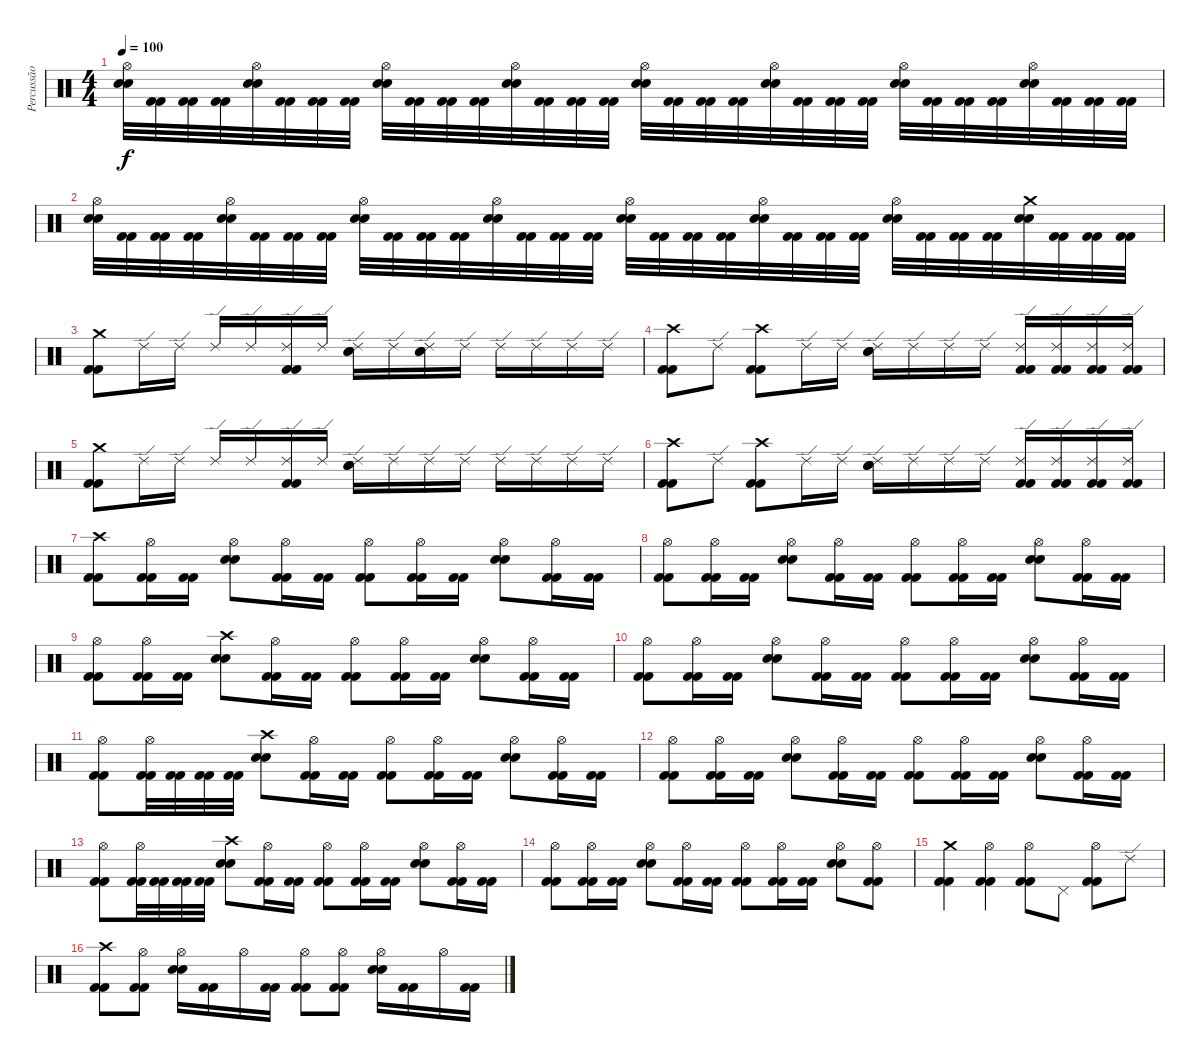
\track ("Percussão" "Percussão") {instrument percussion}
\staff {score}
\articulation defaults
\ts (4 4)
\tempo 100
\clef neutral
\ks c
("Hi-Hat (open)" "Electric Snare (hit)" "Electric Snare (hit)").32{dy f} ("Kick (hit) 2" "Kick (hit) 2").32 ("Kick (hit) 2" "Kick (hit) 2").32 ("Kick (hit) 2" "Kick (hit) 2").32 ("Hi-Hat (open)" "Electric Snare (hit)" "Electric Snare (hit)").32 ("Kick (hit) 2" "Kick (hit) 2").32 ("Kick (hit) 2" "Kick (hit) 2").32 ("Kick (hit) 2" "Kick (hit) 2").32 ("Hi-Hat (open)" "Electric Snare (hit)" "Electric Snare (hit)").32 ("Kick (hit) 2" "Kick (hit) 2").32 ("Kick (hit) 2" "Kick (hit) 2").32 ("Kick (hit) 2" "Kick (hit) 2").32 ("Hi-Hat (open)" "Electric Snare (hit)" "Electric Snare (hit)").32 ("Kick (hit) 2" "Kick (hit) 2").32 ("Kick (hit) 2" "Kick (hit) 2").32 ("Kick (hit) 2" "Kick (hit) 2").32 ("Hi-Hat (open)" "Electric Snare (hit)" "Electric Snare (hit)").32 ("Kick (hit) 2" "Kick (hit) 2").32 ("Kick (hit) 2" "Kick (hit) 2").32 ("Kick (hit) 2" "Kick (hit) 2").32 ("Hi-Hat (open)" "Electric Snare (hit)" "Electric Snare (hit)").32 ("Kick (hit) 2" "Kick (hit) 2").32 ("Kick (hit) 2" "Kick (hit) 2").32 ("Kick (hit) 2" "Kick (hit) 2").32 ("Hi-Hat (open)" "Electric Snare (hit)" "Electric Snare (hit)").32 ("Kick (hit) 2" "Kick (hit) 2").32 ("Kick (hit) 2" "Kick (hit) 2").32 ("Kick (hit) 2" "Kick (hit) 2").32 ("Hi-Hat (open)" "Electric Snare (hit)" "Electric Snare (hit)").32 ("Kick (hit) 2" "Kick (hit) 2").32 ("Kick (hit) 2" "Kick (hit) 2").32 ("Kick (hit) 2" "Kick (hit) 2").32 |
("Hi-Hat (open)" "Electric Snare (hit)" "Electric Snare (hit)").32 ("Kick (hit) 2" "Kick (hit) 2").32 ("Kick (hit) 2" "Kick (hit) 2").32 ("Kick (hit) 2" "Kick (hit) 2").32 ("Hi-Hat (open)" "Electric Snare (hit)" "Electric Snare (hit)").32 ("Kick (hit) 2" "Kick (hit) 2").32 ("Kick (hit) 2" "Kick (hit) 2").32 ("Kick (hit) 2" "Kick (hit) 2").32 ("Hi-Hat (open)" "Electric Snare (hit)" "Electric Snare (hit)").32 ("Kick (hit) 2" "Kick (hit) 2").32 ("Kick (hit) 2" "Kick (hit) 2").32 ("Kick (hit) 2" "Kick (hit) 2").32 ("Hi-Hat (open)" "Electric Snare (hit)" "Electric Snare (hit)").32 ("Kick (hit) 2" "Kick (hit) 2").32 ("Kick (hit) 2" "Kick (hit) 2").32 ("Kick (hit) 2" "Kick (hit) 2").32 ("Hi-Hat (open)" "Electric Snare (hit)" "Electric Snare (hit)").32 ("Kick (hit) 2" "Kick (hit) 2").32 ("Kick (hit) 2" "Kick (hit) 2").32 ("Kick (hit) 2" "Kick (hit) 2").32 ("Hi-Hat (open)" "Electric Snare (hit)" "Electric Snare (hit)").32 ("Kick (hit) 2" "Kick (hit) 2").32 ("Kick (hit) 2" "Kick (hit) 2").32 ("Kick (hit) 2" "Kick (hit) 2").32 ("Hi-Hat (open)" "Electric Snare (hit)" "Electric Snare (hit)").32 ("Kick (hit) 2" "Kick (hit) 2").32 ("Kick (hit) 2" "Kick (hit) 2").32 ("Kick (hit) 2" "Kick (hit) 2").32 ("Crash medium (hit)" "Electric Snare (hit)" "Electric Snare (hit)").32 ("Kick (hit) 2" "Kick (hit) 2").32 ("Kick (hit) 2" "Kick (hit) 2").32 ("Kick (hit) 2" "Kick (hit) 2").32 |
("Crash medium (hit)" "Kick (hit) 2" "Kick (hit) 2").8 "Ride (edge) 2".16 "Ride (edge) 2".16 "Ride (edge) 2".16 "Ride (edge) 2".16 ("Ride (edge) 2" "Kick (hit) 2" "Kick (hit) 2").16 "Ride (edge) 2".16 ("Ride (edge) 2" "Electric Snare (hit)" "Electric Snare (hit)").16 "Ride (edge) 2".16 ("Ride (edge) 2" "Electric Snare (hit)" "Electric Snare (hit)").16 "Ride (edge) 2".16 "Ride (edge) 2".16 "Ride (edge) 2".16 "Ride (edge) 2".16 "Ride (edge) 2".16 |
("Crash high (hit)" "Kick (hit) 2" "Kick (hit) 2").8 "Ride (edge) 2".8 ("Crash high (hit)" "Kick (hit) 2" "Kick (hit) 2").8 "Ride (edge) 2".16 "Ride (edge) 2".16 ("Ride (edge) 2" "Electric Snare (hit)" "Electric Snare (hit)").16 "Ride (edge) 2".16 "Ride (edge) 2".16 "Ride (edge) 2".16 ("Ride (edge) 2" "Kick (hit) 2" "Kick (hit) 2").16 ("Ride (edge) 2" "Kick (hit) 2" "Kick (hit) 2").16 ("Ride (edge) 2" "Kick (hit) 2" "Kick (hit) 2").16 ("Ride (edge) 2" "Kick (hit) 2" "Kick (hit) 2").16 |
("Crash medium (hit)" "Kick (hit) 2" "Kick (hit) 2").8 "Ride (edge) 2".16 "Ride (edge) 2".16 "Ride (edge) 2".16 "Ride (edge) 2".16 ("Ride (edge) 2" "Kick (hit) 2" "Kick (hit) 2").16 "Ride (edge) 2".16 ("Ride (edge) 2" "Electric Snare (hit)" "Electric Snare (hit)").16 "Ride (edge) 2".16 "Ride (edge) 2".16 "Ride (edge) 2".16 "Ride (edge) 2".16 "Ride (edge) 2".16 "Ride (edge) 2".16 "Ride (edge) 2".16 |
("Crash high (hit)" "Kick (hit) 2" "Kick (hit) 2").8 "Ride (edge) 2".8 ("Crash high (hit)" "Kick (hit) 2" "Kick (hit) 2").8 "Ride (edge) 2".16 "Ride (edge) 2".16 ("Ride (edge) 2" "Electric Snare (hit)" "Electric Snare (hit)").16 "Ride (edge) 2".16 "Ride (edge) 2".16 "Ride (edge) 2".16 ("Ride (edge) 2" "Kick (hit) 2" "Kick (hit) 2").16 ("Ride (edge) 2" "Kick (hit) 2" "Kick (hit) 2").16 ("Ride (edge) 2" "Kick (hit) 2" "Kick (hit) 2").16 ("Ride (edge) 2" "Kick (hit) 2" "Kick (hit) 2").16 |
("Crash high (hit)" "Kick (hit) 2" "Kick (hit) 2").8 ("Hi-Hat (open)" "Kick (hit) 2" "Kick (hit) 2").16 ("Kick (hit) 2" "Kick (hit) 2").16 ("Hi-Hat (open)" "Electric Snare (hit)" "Electric Snare (hit)").8 ("Hi-Hat (open)" "Kick (hit) 2" "Kick (hit) 2").16 ("Kick (hit) 2" "Kick (hit) 2").16 ("Hi-Hat (open)" "Kick (hit) 2" "Kick (hit) 2").8 ("Hi-Hat (open)" "Kick (hit) 2" "Kick (hit) 2").16 ("Kick (hit) 2" "Kick (hit) 2").16 ("Hi-Hat (open)" "Electric Snare (hit)" "Electric Snare (hit)").8 ("Hi-Hat (open)" "Kick (hit) 2" "Kick (hit) 2").16 ("Kick (hit) 2" "Kick (hit) 2").16 |
("Hi-Hat (open)" "Kick (hit) 2" "Kick (hit) 2").8 ("Hi-Hat (open)" "Kick (hit) 2" "Kick (hit) 2").16 ("Kick (hit) 2" "Kick (hit) 2").16 ("Hi-Hat (open)" "Electric Snare (hit)" "Electric Snare (hit)").8 ("Hi-Hat (open)" "Kick (hit) 2" "Kick (hit) 2").16 ("Kick (hit) 2" "Kick (hit) 2").16 ("Hi-Hat (open)" "Kick (hit) 2" "Kick (hit) 2").8 ("Hi-Hat (open)" "Kick (hit) 2" "Kick (hit) 2").16 ("Kick (hit) 2" "Kick (hit) 2").16 ("Hi-Hat (open)" "Electric Snare (hit)" "Electric Snare (hit)").8 ("Hi-Hat (open)" "Kick (hit) 2" "Kick (hit) 2").16 ("Kick (hit) 2" "Kick (hit) 2").16 |
("Hi-Hat (open)" "Kick (hit) 2" "Kick (hit) 2").8 ("Hi-Hat (open)" "Kick (hit) 2" "Kick (hit) 2").16 ("Kick (hit) 2" "Kick (hit) 2").16 ("Crash high (hit)" "Electric Snare (hit)" "Electric Snare (hit)").8 ("Hi-Hat (open)" "Kick (hit) 2" "Kick (hit) 2").16 ("Kick (hit) 2" "Kick (hit) 2").16 ("Hi-Hat (open)" "Kick (hit) 2" "Kick (hit) 2").8 ("Hi-Hat (open)" "Kick (hit) 2" "Kick (hit) 2").16 ("Kick (hit) 2" "Kick (hit) 2").16 ("Hi-Hat (open)" "Electric Snare (hit)" "Electric Snare (hit)").8 ("Hi-Hat (open)" "Kick (hit) 2" "Kick (hit) 2").16 ("Kick (hit) 2" "Kick (hit) 2").16 |
("Hi-Hat (open)" "Kick (hit) 2" "Kick (hit) 2").8 ("Hi-Hat (open)" "Kick (hit) 2" "Kick (hit) 2").16 ("Kick (hit) 2" "Kick (hit) 2").16 ("Hi-Hat (open)" "Electric Snare (hit)" "Electric Snare (hit)").8 ("Hi-Hat (open)" "Kick (hit) 2" "Kick (hit) 2").16 ("Kick (hit) 2" "Kick (hit) 2").16 ("Hi-Hat (open)" "Kick (hit) 2" "Kick (hit) 2").8 ("Hi-Hat (open)" "Kick (hit) 2" "Kick (hit) 2").16 ("Kick (hit) 2" "Kick (hit) 2").16 ("Hi-Hat (open)" "Electric Snare (hit)" "Electric Snare (hit)").8 ("Hi-Hat (open)" "Kick (hit) 2" "Kick (hit) 2").16 ("Kick (hit) 2" "Kick (hit) 2").16 |
("Hi-Hat (open)" "Kick (hit) 2" "Kick (hit) 2").8 ("Hi-Hat (open)" "Kick (hit) 2" "Kick (hit) 2").32 ("Kick (hit) 2" "Kick (hit) 2").32 ("Kick (hit) 2" "Kick (hit) 2").32 ("Kick (hit) 2" "Kick (hit) 2").32 ("Crash high (hit)" "Electric Snare (hit)" "Electric Snare (hit)").8 ("Hi-Hat (open)" "Kick (hit) 2" "Kick (hit) 2").16 ("Kick (hit) 2" "Kick (hit) 2").16 ("Hi-Hat (open)" "Kick (hit) 2" "Kick (hit) 2").8 ("Hi-Hat (open)" "Kick (hit) 2" "Kick (hit) 2").16 ("Kick (hit) 2" "Kick (hit) 2").16 ("Hi-Hat (open)" "Electric Snare (hit)" "Electric Snare (hit)").8 ("Hi-Hat (open)" "Kick (hit) 2" "Kick (hit) 2").16 ("Kick (hit) 2" "Kick (hit) 2").16 |
("Hi-Hat (open)" "Kick (hit) 2" "Kick (hit) 2").8 ("Hi-Hat (open)" "Kick (hit) 2" "Kick (hit) 2").16 ("Kick (hit) 2" "Kick (hit) 2").16 ("Hi-Hat (open)" "Electric Snare (hit)" "Electric Snare (hit)").8 ("Hi-Hat (open)" "Kick (hit) 2" "Kick (hit) 2").16 ("Kick (hit) 2" "Kick (hit) 2").16 ("Hi-Hat (open)" "Kick (hit) 2" "Kick (hit) 2").8 ("Hi-Hat (open)" "Kick (hit) 2" "Kick (hit) 2").16 ("Kick (hit) 2" "Kick (hit) 2").16 ("Hi-Hat (open)" "Electric Snare (hit)" "Electric Snare (hit)").8 ("Hi-Hat (open)" "Kick (hit) 2" "Kick (hit) 2").16 ("Kick (hit) 2" "Kick (hit) 2").16 |
("Hi-Hat (open)" "Kick (hit) 2" "Kick (hit) 2").8 ("Hi-Hat (open)" "Kick (hit) 2" "Kick (hit) 2").32 ("Kick (hit) 2" "Kick (hit) 2").32 ("Kick (hit) 2" "Kick (hit) 2").32 ("Kick (hit) 2" "Kick (hit) 2").32 ("Crash high (hit)" "Electric Snare (hit)" "Electric Snare (hit)").8 ("Hi-Hat (open)" "Kick (hit) 2" "Kick (hit) 2").16 ("Kick (hit) 2" "Kick (hit) 2").16 ("Hi-Hat (open)" "Kick (hit) 2" "Kick (hit) 2").8 ("Hi-Hat (open)" "Kick (hit) 2" "Kick (hit) 2").16 ("Kick (hit) 2" "Kick (hit) 2").16 ("Hi-Hat (open)" "Electric Snare (hit)" "Electric Snare (hit)").8 ("Hi-Hat (open)" "Kick (hit) 2" "Kick (hit) 2").16 ("Kick (hit) 2" "Kick (hit) 2").16 |
("Hi-Hat (open)" "Kick (hit) 2" "Kick (hit) 2").8 ("Hi-Hat (open)" "Kick (hit) 2" "Kick (hit) 2").16 ("Kick (hit) 2" "Kick (hit) 2").16 ("Hi-Hat (open)" "Electric Snare (hit)" "Electric Snare (hit)").8 ("Hi-Hat (open)" "Kick (hit) 2" "Kick (hit) 2").16 ("Kick (hit) 2" "Kick (hit) 2").16 ("Hi-Hat (open)" "Kick (hit) 2" "Kick (hit) 2").8 ("Hi-Hat (open)" "Kick (hit) 2" "Kick (hit) 2").16 ("Kick (hit) 2" "Kick (hit) 2").16 ("Hi-Hat (open)" "Electric Snare (hit)" "Electric Snare (hit)").8 ("Hi-Hat (open)" "Kick (hit) 2" "Kick (hit) 2").8 |
("Crash medium (hit)" "Kick (hit) 2" "Kick (hit) 2").4 ("Hi-Hat (open)" "Kick (hit) 2" "Kick (hit) 2").4 ("Hi-Hat (open)" "Kick (hit) 2" "Kick (hit) 2").8 "Pedal Hi-Hat (hit)".8 ("Hi-Hat (open)" "Kick (hit) 2" "Kick (hit) 2").8 "Ride (edge) 2".8 |
("Crash high (hit)" "Kick (hit) 2" "Kick (hit) 2").8 ("Hi-Hat (open)" "Kick (hit) 2" "Kick (hit) 2").8 ("Hi-Hat (open)" "Electric Snare (hit)" "Electric Snare (hit)").16 ("Kick (hit) 2" "Kick (hit) 2").16 "Hi-Hat (open)".16 ("Kick (hit) 2" "Kick (hit) 2").16 ("Hi-Hat (open)" "Kick (hit) 2" "Kick (hit) 2").8 ("Hi-Hat (open)" "Kick (hit) 2" "Kick (hit) 2").8 ("Hi-Hat (open)" "Electric Snare (hit)" "Electric Snare (hit)").16 ("Kick (hit) 2" "Kick (hit) 2").16 "Hi-Hat (open)".16 ("Kick (hit) 2" "Kick (hit) 2").16
